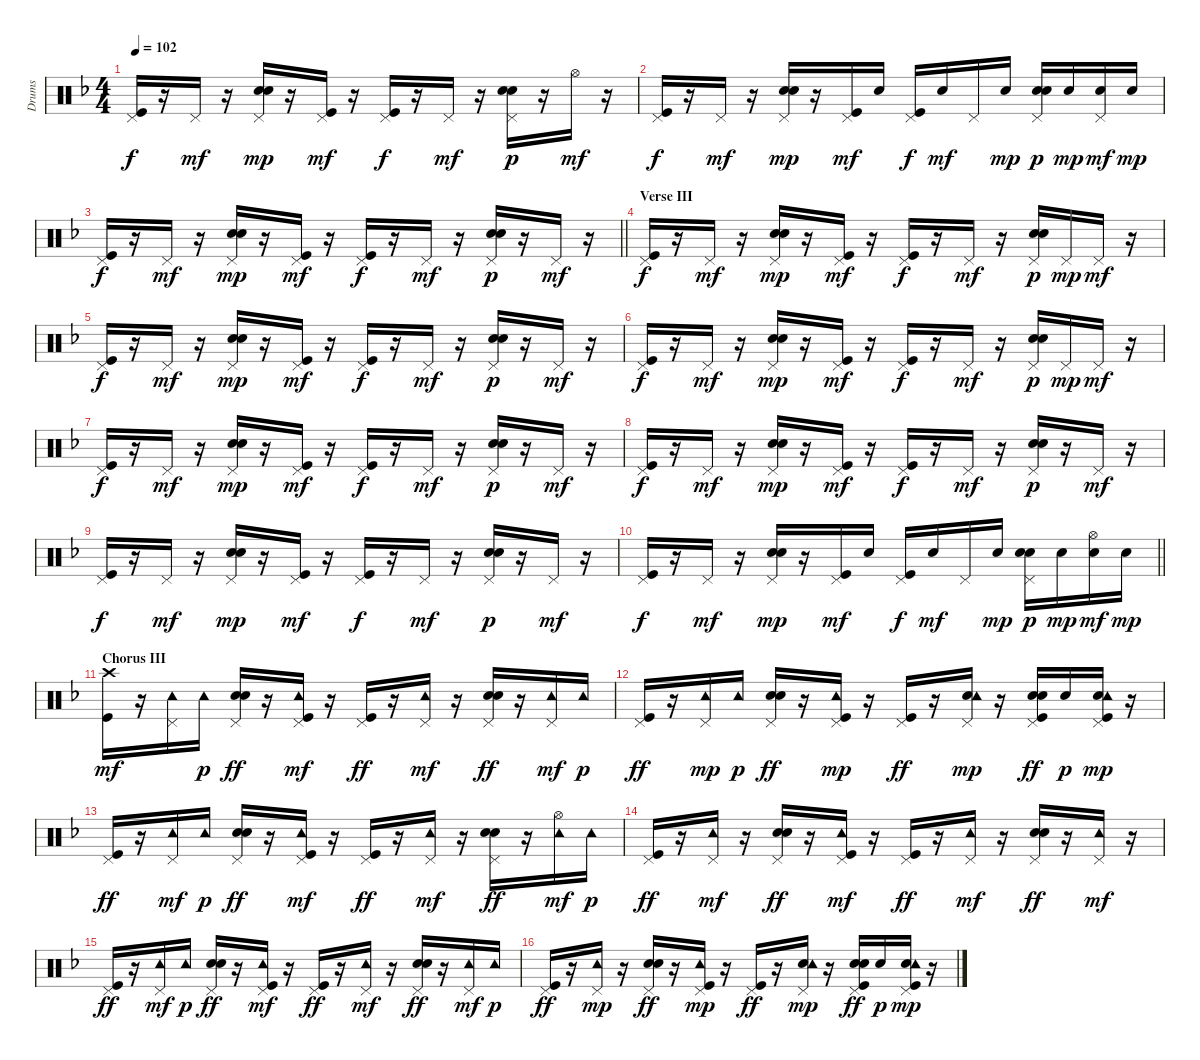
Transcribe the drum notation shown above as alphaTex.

\track ("Drums   " "Drums   ") {instrument percussion}
\staff {score}
\articulation defaults
\ts (4 4)
\tempo 102
\clef neutral
\ks f
("Kick (hit)" "Pedal Hi-Hat (hit)").16{dy f} r.16 "Pedal Hi-Hat (hit)".16{dy mf} r.16 ("Electric Snare (hit)" "Pedal Hi-Hat (hit)" "Hand Clap (hit)").16{dy mp} r.16 ("Kick (hit)" "Pedal Hi-Hat (hit)").16{dy mf} r.16 ("Kick (hit)" "Pedal Hi-Hat (hit)").16{dy f} r.16 "Pedal Hi-Hat (hit)".16{dy mf} r.16 ("Electric Snare (hit)" "Pedal Hi-Hat (hit)" "Hand Clap (hit)").16{dy p} r.16 "Hi-Hat (open)".16{dy mf} r.16 |
("Kick (hit)" "Pedal Hi-Hat (hit)").16{dy f} r.16 "Pedal Hi-Hat (hit)".16{dy mf} r.16 ("Electric Snare (hit)" "Pedal Hi-Hat (hit)" "Hand Clap (hit)").16{dy mp} r.16 ("Kick (hit)" "Pedal Hi-Hat (hit)").16{dy mf} "Electric Snare (hit)".16 ("Kick (hit)" "Pedal Hi-Hat (hit)").16{dy f} "Electric Snare (hit)".16{dy mf} "Pedal Hi-Hat (hit)".16 "Electric Snare (hit)".16{dy mp} ("Electric Snare (hit)" "Pedal Hi-Hat (hit)" "Hand Clap (hit)").16{dy p} "Electric Snare (hit)".16{dy mp} ("Electric Snare (hit)" "Pedal Hi-Hat (hit)").16{dy mf} "Electric Snare (hit)".16{dy mp} |
\barLineRight lightlight
("Kick (hit)" "Pedal Hi-Hat (hit)").16{dy f} r.16 "Pedal Hi-Hat (hit)".16{dy mf} r.16 ("Electric Snare (hit)" "Pedal Hi-Hat (hit)" "Hand Clap (hit)").16{dy mp} r.16 ("Kick (hit)" "Pedal Hi-Hat (hit)").16{dy mf} r.16 ("Kick (hit)" "Pedal Hi-Hat (hit)").16{dy f} r.16 "Pedal Hi-Hat (hit)".16{dy mf} r.16 ("Electric Snare (hit)" "Pedal Hi-Hat (hit)" "Hand Clap (hit)").16{dy p} r.16 "Pedal Hi-Hat (hit)".16{dy mf} r.16 |
\section ("" "Verse III")
("Kick (hit)" "Pedal Hi-Hat (hit)").16{dy f} r.16 "Pedal Hi-Hat (hit)".16{dy mf} r.16 ("Electric Snare (hit)" "Pedal Hi-Hat (hit)" "Hand Clap (hit)").16{dy mp} r.16 ("Kick (hit)" "Pedal Hi-Hat (hit)").16{dy mf} r.16 ("Kick (hit)" "Pedal Hi-Hat (hit)").16{dy f} r.16 "Pedal Hi-Hat (hit)".16{dy mf} r.16 ("Electric Snare (hit)" "Pedal Hi-Hat (hit)" "Hand Clap (hit)").16{dy p} "Pedal Hi-Hat (hit)".16{dy mp} "Pedal Hi-Hat (hit)".16{dy mf} r.16 |
("Kick (hit)" "Pedal Hi-Hat (hit)").16{dy f} r.16 "Pedal Hi-Hat (hit)".16{dy mf} r.16 ("Electric Snare (hit)" "Pedal Hi-Hat (hit)" "Hand Clap (hit)").16{dy mp} r.16 ("Kick (hit)" "Pedal Hi-Hat (hit)").16{dy mf} r.16 ("Kick (hit)" "Pedal Hi-Hat (hit)").16{dy f} r.16 "Pedal Hi-Hat (hit)".16{dy mf} r.16 ("Electric Snare (hit)" "Pedal Hi-Hat (hit)" "Hand Clap (hit)").16{dy p} r.16 "Pedal Hi-Hat (hit)".16{dy mf} r.16 |
("Kick (hit)" "Pedal Hi-Hat (hit)").16{dy f} r.16 "Pedal Hi-Hat (hit)".16{dy mf} r.16 ("Electric Snare (hit)" "Pedal Hi-Hat (hit)" "Hand Clap (hit)").16{dy mp} r.16 ("Kick (hit)" "Pedal Hi-Hat (hit)").16{dy mf} r.16 ("Kick (hit)" "Pedal Hi-Hat (hit)").16{dy f} r.16 "Pedal Hi-Hat (hit)".16{dy mf} r.16 ("Electric Snare (hit)" "Pedal Hi-Hat (hit)" "Hand Clap (hit)").16{dy p} "Pedal Hi-Hat (hit)".16{dy mp} "Pedal Hi-Hat (hit)".16{dy mf} r.16 |
("Kick (hit)" "Pedal Hi-Hat (hit)").16{dy f} r.16 "Pedal Hi-Hat (hit)".16{dy mf} r.16 ("Electric Snare (hit)" "Pedal Hi-Hat (hit)" "Hand Clap (hit)").16{dy mp} r.16 ("Kick (hit)" "Pedal Hi-Hat (hit)").16{dy mf} r.16 ("Kick (hit)" "Pedal Hi-Hat (hit)").16{dy f} r.16 "Pedal Hi-Hat (hit)".16{dy mf} r.16 ("Electric Snare (hit)" "Pedal Hi-Hat (hit)" "Hand Clap (hit)").16{dy p} r.16 "Pedal Hi-Hat (hit)".16{dy mf} r.16 |
("Kick (hit)" "Pedal Hi-Hat (hit)").16{dy f} r.16 "Pedal Hi-Hat (hit)".16{dy mf} r.16 ("Electric Snare (hit)" "Pedal Hi-Hat (hit)" "Hand Clap (hit)").16{dy mp} r.16 ("Kick (hit)" "Pedal Hi-Hat (hit)").16{dy mf} r.16 ("Kick (hit)" "Pedal Hi-Hat (hit)").16{dy f} r.16 "Pedal Hi-Hat (hit)".16{dy mf} r.16 ("Electric Snare (hit)" "Pedal Hi-Hat (hit)" "Hand Clap (hit)").16{dy p} r.16 "Pedal Hi-Hat (hit)".16{dy mf} r.16 |
("Kick (hit)" "Pedal Hi-Hat (hit)").16{dy f} r.16 "Pedal Hi-Hat (hit)".16{dy mf} r.16 ("Electric Snare (hit)" "Pedal Hi-Hat (hit)" "Hand Clap (hit)").16{dy mp} r.16 ("Kick (hit)" "Pedal Hi-Hat (hit)").16{dy mf} r.16 ("Kick (hit)" "Pedal Hi-Hat (hit)").16{dy f} r.16 "Pedal Hi-Hat (hit)".16{dy mf} r.16 ("Electric Snare (hit)" "Pedal Hi-Hat (hit)" "Hand Clap (hit)").16{dy p} r.16 "Pedal Hi-Hat (hit)".16{dy mf} r.16 |
\barLineRight lightlight
("Kick (hit)" "Pedal Hi-Hat (hit)").16{dy f} r.16 "Pedal Hi-Hat (hit)".16{dy mf} r.16 ("Electric Snare (hit)" "Pedal Hi-Hat (hit)" "Hand Clap (hit)").16{dy mp} r.16 ("Kick (hit)" "Pedal Hi-Hat (hit)").16{dy mf} "Electric Snare (hit)".16 ("Kick (hit)" "Pedal Hi-Hat (hit)").16{dy f} "Electric Snare (hit)".16{dy mf} "Pedal Hi-Hat (hit)".16 "Electric Snare (hit)".16{dy mp} ("Electric Snare (hit)" "Pedal Hi-Hat (hit)" "Hand Clap (hit)").16{dy p} "Electric Snare (hit)".16{dy mp} ("Hi-Hat (open)" "Electric Snare (hit)").16{dy mf} "Electric Snare (hit)".16{dy mp} |
\section ("" "Chorus III")
("Kick (hit)" "Crash high (hit)").16{dy mf} r.16 ("Pedal Hi-Hat (hit)" "Tambourine (hit)").16 "Tambourine (hit)".16{dy p} ("Electric Snare (hit)" "Pedal Hi-Hat (hit)" "Hand Clap (hit)").16{dy ff} r.16 ("Kick (hit)" "Pedal Hi-Hat (hit)" "Tambourine (hit)").16{dy mf} r.16 ("Kick (hit)" "Pedal Hi-Hat (hit)").16{dy ff} r.16 ("Pedal Hi-Hat (hit)" "Tambourine (hit)").16{dy mf} r.16 ("Electric Snare (hit)" "Pedal Hi-Hat (hit)" "Hand Clap (hit)").16{dy ff} r.16 ("Pedal Hi-Hat (hit)" "Tambourine (hit)").16{dy mf} "Tambourine (hit)".16{dy p} |
("Kick (hit)" "Pedal Hi-Hat (hit)").16{dy ff} r.16 ("Pedal Hi-Hat (hit)" "Tambourine (hit)").16{dy mp} "Tambourine (hit)".16{dy p} ("Electric Snare (hit)" "Pedal Hi-Hat (hit)" "Hand Clap (hit)").16{dy ff} r.16 ("Kick (hit)" "Pedal Hi-Hat (hit)" "Tambourine (hit)").16{dy mp} r.16 ("Kick (hit)" "Pedal Hi-Hat (hit)").16{dy ff} r.16 ("Electric Snare (hit)" "Pedal Hi-Hat (hit)" "Tambourine (hit)").16{dy mp} r.16 ("Kick (hit)" "Electric Snare (hit)" "Pedal Hi-Hat (hit)" "Hand Clap (hit)").16{dy ff} "Electric Snare (hit)".16{dy p} ("Kick (hit)" "Electric Snare (hit)" "Pedal Hi-Hat (hit)" "Tambourine (hit)").16{dy mp} r.16 |
("Kick (hit)" "Pedal Hi-Hat (hit)").16{dy ff} r.16 ("Pedal Hi-Hat (hit)" "Tambourine (hit)").16{dy mf} "Tambourine (hit)".16{dy p} ("Electric Snare (hit)" "Pedal Hi-Hat (hit)" "Hand Clap (hit)").16{dy ff} r.16 ("Kick (hit)" "Pedal Hi-Hat (hit)" "Tambourine (hit)").16{dy mf} r.16 ("Kick (hit)" "Pedal Hi-Hat (hit)").16{dy ff} r.16 ("Pedal Hi-Hat (hit)" "Tambourine (hit)").16{dy mf} r.16 ("Electric Snare (hit)" "Pedal Hi-Hat (hit)" "Hand Clap (hit)").16{dy ff} r.16 ("Hi-Hat (open)" "Tambourine (hit)").16{dy mf} "Tambourine (hit)".16{dy p} |
("Kick (hit)" "Pedal Hi-Hat (hit)").16{dy ff} r.16 ("Pedal Hi-Hat (hit)" "Tambourine (hit)").16{dy mf} r.16 ("Electric Snare (hit)" "Pedal Hi-Hat (hit)" "Hand Clap (hit)").16{dy ff} r.16 ("Kick (hit)" "Pedal Hi-Hat (hit)" "Tambourine (hit)").16{dy mf} r.16 ("Kick (hit)" "Pedal Hi-Hat (hit)").16{dy ff} r.16 ("Pedal Hi-Hat (hit)" "Tambourine (hit)").16{dy mf} r.16 ("Electric Snare (hit)" "Pedal Hi-Hat (hit)" "Hand Clap (hit)").16{dy ff} r.16 ("Pedal Hi-Hat (hit)" "Tambourine (hit)").16{dy mf} r.16 |
("Kick (hit)" "Pedal Hi-Hat (hit)").16{dy ff} r.16 ("Pedal Hi-Hat (hit)" "Tambourine (hit)").16{dy mf} "Tambourine (hit)".16{dy p} ("Electric Snare (hit)" "Pedal Hi-Hat (hit)" "Hand Clap (hit)").16{dy ff} r.16 ("Kick (hit)" "Pedal Hi-Hat (hit)" "Tambourine (hit)").16{dy mf} r.16 ("Kick (hit)" "Pedal Hi-Hat (hit)").16{dy ff} r.16 ("Pedal Hi-Hat (hit)" "Tambourine (hit)").16{dy mf} r.16 ("Electric Snare (hit)" "Pedal Hi-Hat (hit)" "Hand Clap (hit)").16{dy ff} r.16 ("Pedal Hi-Hat (hit)" "Tambourine (hit)").16{dy mf} "Tambourine (hit)".16{dy p} |
("Kick (hit)" "Pedal Hi-Hat (hit)").16{dy ff} r.16 ("Pedal Hi-Hat (hit)" "Tambourine (hit)").16{dy mp} r.16 ("Electric Snare (hit)" "Pedal Hi-Hat (hit)" "Hand Clap (hit)").16{dy ff} r.16 ("Kick (hit)" "Pedal Hi-Hat (hit)" "Tambourine (hit)").16{dy mp} r.16 ("Kick (hit)" "Pedal Hi-Hat (hit)").16{dy ff} r.16 ("Electric Snare (hit)" "Pedal Hi-Hat (hit)" "Tambourine (hit)").16{dy mp} r.16 ("Kick (hit)" "Electric Snare (hit)" "Pedal Hi-Hat (hit)" "Hand Clap (hit)").16{dy ff} "Electric Snare (hit)".16{dy p} ("Kick (hit)" "Electric Snare (hit)" "Pedal Hi-Hat (hit)" "Tambourine (hit)").16{dy mp} r.16
